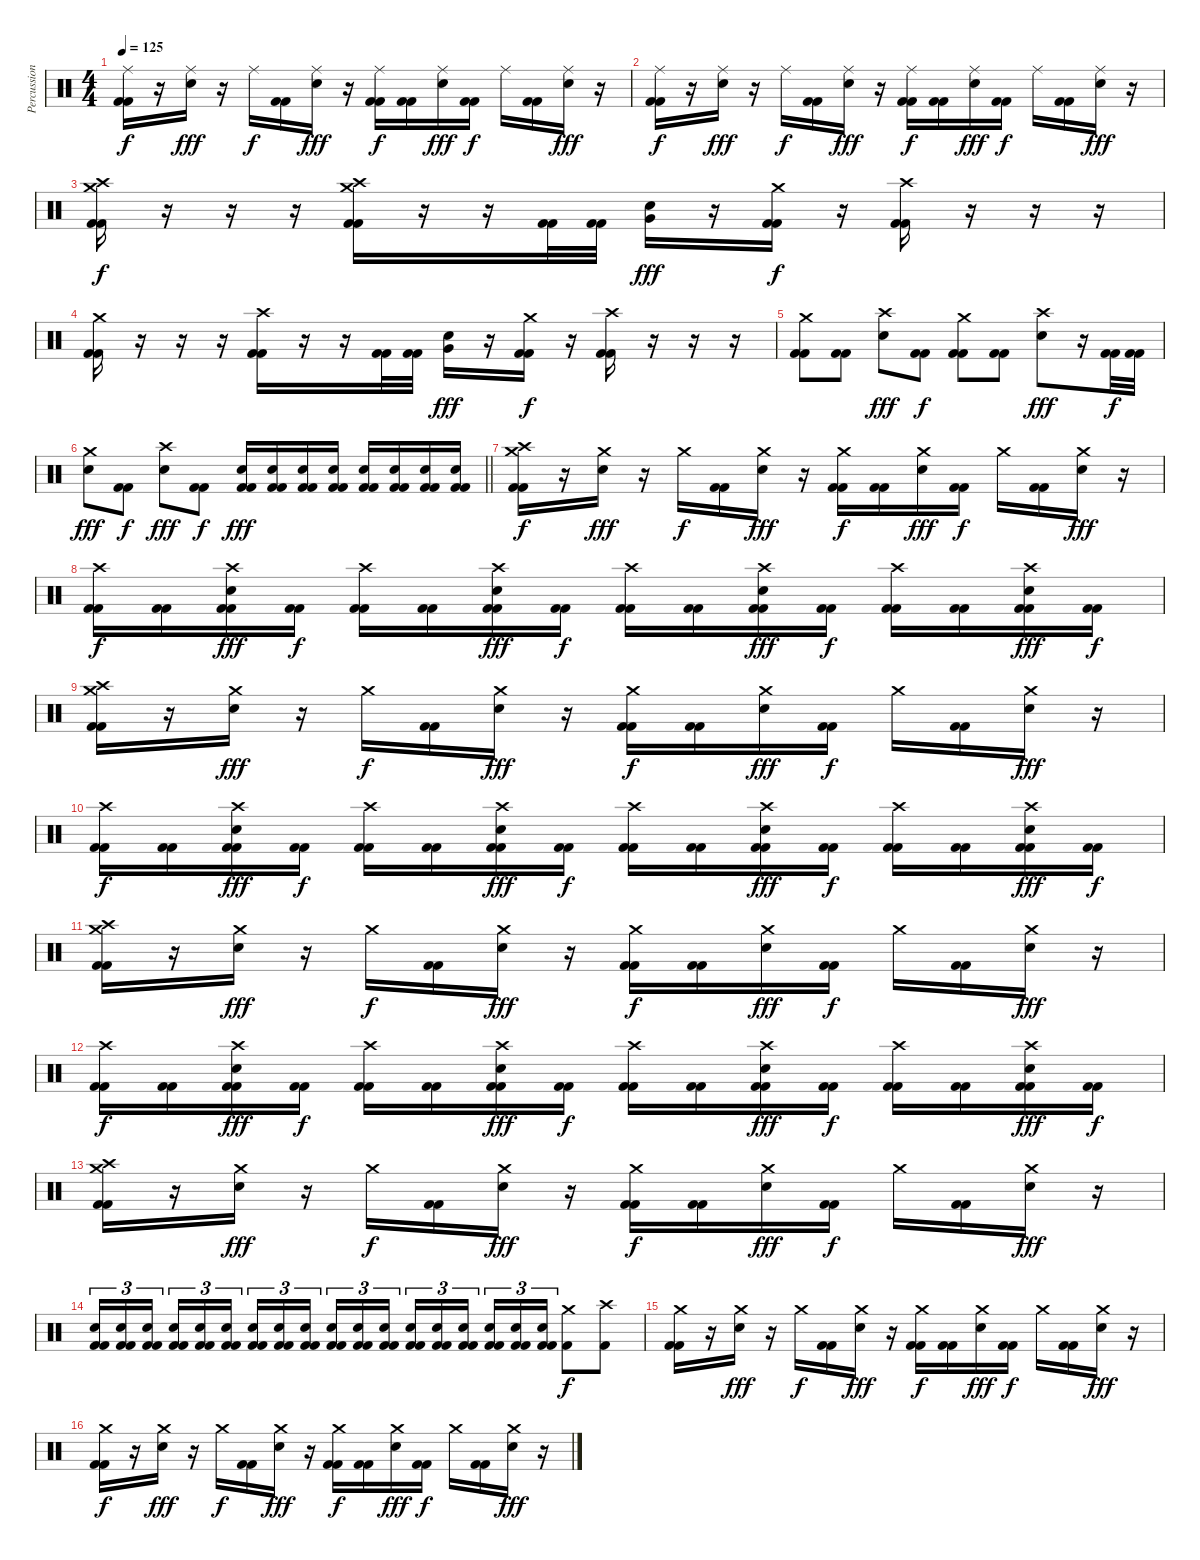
\track ("Percussion" "Percussion") {solo instrument percussion}
\staff {score}
\articulation defaults
\ts (4 4)
\tempo 125
\clef neutral
\ks c
("Ride (middle)" "Kick (hit) 2" "Kick (hit) 2").16{dy f} r.16 ("Ride (middle)" "Electric Snare (hit)").16{dy fff} r.16 "Ride (middle)".16{dy f} ("Kick (hit) 2" "Kick (hit) 2").16 ("Ride (middle)" "Electric Snare (hit)").16{dy fff} r.16 ("Ride (middle)" "Kick (hit) 2" "Kick (hit) 2").16{dy f} ("Kick (hit) 2" "Kick (hit) 2").16 ("Ride (middle)" "Electric Snare (hit)").16{dy fff} ("Kick (hit) 2" "Kick (hit) 2").16{dy f} "Ride (middle)".16 ("Kick (hit) 2" "Kick (hit) 2").16 ("Ride (middle)" "Electric Snare (hit)").16{dy fff} r.16 |
("Ride (middle)" "Kick (hit) 2" "Kick (hit) 2").16{dy f} r.16 ("Ride (middle)" "Electric Snare (hit)").16{dy fff} r.16 "Ride (middle)".16{dy f} ("Kick (hit) 2" "Kick (hit) 2").16 ("Ride (middle)" "Electric Snare (hit)").16{dy fff} r.16 ("Ride (middle)" "Kick (hit) 2" "Kick (hit) 2").16{dy f} ("Kick (hit) 2" "Kick (hit) 2").16 ("Ride (middle)" "Electric Snare (hit)").16{dy fff} ("Kick (hit) 2" "Kick (hit) 2").16{dy f} "Ride (middle)".16 ("Kick (hit) 2" "Kick (hit) 2").16 ("Ride (middle)" "Electric Snare (hit)").16{dy fff} r.16 |
("Crash high (hit)" "Crash medium (hit)" "Kick (hit) 2" "Kick (hit) 2").16{dy f} r.16 r.16 r.16 ("Crash high (hit)" "Crash medium (hit)" "Kick (hit) 2" "Kick (hit) 2").16 r.16 r.16 ("Kick (hit) 2" "Kick (hit) 2").32 ("Kick (hit) 2" "Kick (hit) 2").32 ("Electric Snare (hit)" "Very Low Tom (hit)").16{dy fff} r.16 ("Crash medium (hit)" "Kick (hit) 2" "Kick (hit) 2").16{dy f} r.16 ("Crash high (hit)" "Kick (hit) 2" "Kick (hit) 2").16 r.16 r.16 r.16 |
("Crash medium (hit)" "Kick (hit) 2" "Kick (hit) 2").16 r.16 r.16 r.16 ("Crash high (hit)" "Kick (hit) 2" "Kick (hit) 2").16 r.16 r.16 ("Kick (hit) 2" "Kick (hit) 2").32 ("Kick (hit) 2" "Kick (hit) 2").32 ("Electric Snare (hit)" "Very Low Tom (hit)").16{dy fff} r.16 ("Crash medium (hit)" "Kick (hit) 2" "Kick (hit) 2").16{dy f} r.16 ("Crash high (hit)" "Kick (hit) 2" "Kick (hit) 2").16 r.16 r.16 r.16 |
("Crash medium (hit)" "Kick (hit) 2" "Kick (hit) 2").8 ("Kick (hit) 2" "Kick (hit) 2").8 ("Crash high (hit)" "Electric Snare (hit)").8{dy fff} ("Kick (hit) 2" "Kick (hit) 2").8{dy f} ("Crash medium (hit)" "Kick (hit) 2" "Kick (hit) 2").8 ("Kick (hit) 2" "Kick (hit) 2").8 ("Crash high (hit)" "Electric Snare (hit)").8{dy fff} r.16 ("Kick (hit) 2" "Kick (hit) 2").32{dy f} ("Kick (hit) 2" "Kick (hit) 2").32 |
\barLineRight lightlight
("Crash medium (hit)" "Electric Snare (hit)").8{dy fff} ("Kick (hit) 2" "Kick (hit) 2").8{dy f} ("Crash high (hit)" "Electric Snare (hit)").8{dy fff} ("Kick (hit) 2" "Kick (hit) 2").8{dy f} ("Electric Snare (hit)" "Kick (hit) 2" "Kick (hit) 2").16{dy fff} ("Electric Snare (hit)" "Kick (hit) 2" "Kick (hit) 2").16 ("Electric Snare (hit)" "Kick (hit) 2" "Kick (hit) 2").16 ("Electric Snare (hit)" "Kick (hit) 2" "Kick (hit) 2").16 ("Electric Snare (hit)" "Kick (hit) 2" "Kick (hit) 2").16 ("Electric Snare (hit)" "Kick (hit) 2" "Kick (hit) 2").16 ("Electric Snare (hit)" "Kick (hit) 2" "Kick (hit) 2").16 ("Electric Snare (hit)" "Kick (hit) 2" "Kick (hit) 2").16 |
("Crash high (hit)" "Crash medium (hit)" "Kick (hit) 2" "Kick (hit) 2").16{dy f} r.16 ("Crash medium (hit)" "Electric Snare (hit)").16{dy fff} r.16 "Crash medium (hit)".16{dy f} ("Kick (hit) 2" "Kick (hit) 2").16 ("Crash medium (hit)" "Electric Snare (hit)").16{dy fff} r.16 ("Crash medium (hit)" "Kick (hit) 2" "Kick (hit) 2").16{dy f} ("Kick (hit) 2" "Kick (hit) 2").16 ("Crash medium (hit)" "Electric Snare (hit)").16{dy fff} ("Kick (hit) 2" "Kick (hit) 2").16{dy f} "Crash medium (hit)".16 ("Kick (hit) 2" "Kick (hit) 2").16 ("Crash medium (hit)" "Electric Snare (hit)").16{dy fff} r.16 |
("Crash high (hit)" "Kick (hit) 2" "Kick (hit) 2").16{dy f} ("Kick (hit) 2" "Kick (hit) 2").16 ("Crash high (hit)" "Electric Snare (hit)" "Kick (hit) 2" "Kick (hit) 2").16{dy fff} ("Kick (hit) 2" "Kick (hit) 2").16{dy f} ("Crash high (hit)" "Kick (hit) 2" "Kick (hit) 2").16 ("Kick (hit) 2" "Kick (hit) 2").16 ("Crash high (hit)" "Electric Snare (hit)" "Kick (hit) 2" "Kick (hit) 2").16{dy fff} ("Kick (hit) 2" "Kick (hit) 2").16{dy f} ("Crash high (hit)" "Kick (hit) 2" "Kick (hit) 2").16 ("Kick (hit) 2" "Kick (hit) 2").16 ("Crash high (hit)" "Electric Snare (hit)" "Kick (hit) 2" "Kick (hit) 2").16{dy fff} ("Kick (hit) 2" "Kick (hit) 2").16{dy f} ("Crash high (hit)" "Kick (hit) 2" "Kick (hit) 2").16 ("Kick (hit) 2" "Kick (hit) 2").16 ("Crash high (hit)" "Electric Snare (hit)" "Kick (hit) 2" "Kick (hit) 2").16{dy fff} ("Kick (hit) 2" "Kick (hit) 2").16{dy f} |
("Crash high (hit)" "Crash medium (hit)" "Kick (hit) 2" "Kick (hit) 2").16 r.16 ("Crash medium (hit)" "Electric Snare (hit)").16{dy fff} r.16 "Crash medium (hit)".16{dy f} ("Kick (hit) 2" "Kick (hit) 2").16 ("Crash medium (hit)" "Electric Snare (hit)").16{dy fff} r.16 ("Crash medium (hit)" "Kick (hit) 2" "Kick (hit) 2").16{dy f} ("Kick (hit) 2" "Kick (hit) 2").16 ("Crash medium (hit)" "Electric Snare (hit)").16{dy fff} ("Kick (hit) 2" "Kick (hit) 2").16{dy f} "Crash medium (hit)".16 ("Kick (hit) 2" "Kick (hit) 2").16 ("Crash medium (hit)" "Electric Snare (hit)").16{dy fff} r.16 |
("Crash high (hit)" "Kick (hit) 2" "Kick (hit) 2").16{dy f} ("Kick (hit) 2" "Kick (hit) 2").16 ("Crash high (hit)" "Electric Snare (hit)" "Kick (hit) 2" "Kick (hit) 2").16{dy fff} ("Kick (hit) 2" "Kick (hit) 2").16{dy f} ("Crash high (hit)" "Kick (hit) 2" "Kick (hit) 2").16 ("Kick (hit) 2" "Kick (hit) 2").16 ("Crash high (hit)" "Electric Snare (hit)" "Kick (hit) 2" "Kick (hit) 2").16{dy fff} ("Kick (hit) 2" "Kick (hit) 2").16{dy f} ("Crash high (hit)" "Kick (hit) 2" "Kick (hit) 2").16 ("Kick (hit) 2" "Kick (hit) 2").16 ("Crash high (hit)" "Electric Snare (hit)" "Kick (hit) 2" "Kick (hit) 2").16{dy fff} ("Kick (hit) 2" "Kick (hit) 2").16{dy f} ("Crash high (hit)" "Kick (hit) 2" "Kick (hit) 2").16 ("Kick (hit) 2" "Kick (hit) 2").16 ("Crash high (hit)" "Electric Snare (hit)" "Kick (hit) 2" "Kick (hit) 2").16{dy fff} ("Kick (hit) 2" "Kick (hit) 2").16{dy f} |
("Crash high (hit)" "Crash medium (hit)" "Kick (hit) 2" "Kick (hit) 2").16 r.16 ("Crash medium (hit)" "Electric Snare (hit)").16{dy fff} r.16 "Crash medium (hit)".16{dy f} ("Kick (hit) 2" "Kick (hit) 2").16 ("Crash medium (hit)" "Electric Snare (hit)").16{dy fff} r.16 ("Crash medium (hit)" "Kick (hit) 2" "Kick (hit) 2").16{dy f} ("Kick (hit) 2" "Kick (hit) 2").16 ("Crash medium (hit)" "Electric Snare (hit)").16{dy fff} ("Kick (hit) 2" "Kick (hit) 2").16{dy f} "Crash medium (hit)".16 ("Kick (hit) 2" "Kick (hit) 2").16 ("Crash medium (hit)" "Electric Snare (hit)").16{dy fff} r.16 |
("Crash high (hit)" "Kick (hit) 2" "Kick (hit) 2").16{dy f} ("Kick (hit) 2" "Kick (hit) 2").16 ("Crash high (hit)" "Electric Snare (hit)" "Kick (hit) 2" "Kick (hit) 2").16{dy fff} ("Kick (hit) 2" "Kick (hit) 2").16{dy f} ("Crash high (hit)" "Kick (hit) 2" "Kick (hit) 2").16 ("Kick (hit) 2" "Kick (hit) 2").16 ("Crash high (hit)" "Electric Snare (hit)" "Kick (hit) 2" "Kick (hit) 2").16{dy fff} ("Kick (hit) 2" "Kick (hit) 2").16{dy f} ("Crash high (hit)" "Kick (hit) 2" "Kick (hit) 2").16 ("Kick (hit) 2" "Kick (hit) 2").16 ("Crash high (hit)" "Electric Snare (hit)" "Kick (hit) 2" "Kick (hit) 2").16{dy fff} ("Kick (hit) 2" "Kick (hit) 2").16{dy f} ("Crash high (hit)" "Kick (hit) 2" "Kick (hit) 2").16 ("Kick (hit) 2" "Kick (hit) 2").16 ("Crash high (hit)" "Electric Snare (hit)" "Kick (hit) 2" "Kick (hit) 2").16{dy fff} ("Kick (hit) 2" "Kick (hit) 2").16{dy f} |
("Crash high (hit)" "Crash medium (hit)" "Kick (hit) 2" "Kick (hit) 2").16 r.16 ("Crash medium (hit)" "Electric Snare (hit)").16{dy fff} r.16 "Crash medium (hit)".16{dy f} ("Kick (hit) 2" "Kick (hit) 2").16 ("Crash medium (hit)" "Electric Snare (hit)").16{dy fff} r.16 ("Crash medium (hit)" "Kick (hit) 2" "Kick (hit) 2").16{dy f} ("Kick (hit) 2" "Kick (hit) 2").16 ("Crash medium (hit)" "Electric Snare (hit)").16{dy fff} ("Kick (hit) 2" "Kick (hit) 2").16{dy f} "Crash medium (hit)".16 ("Kick (hit) 2" "Kick (hit) 2").16 ("Crash medium (hit)" "Electric Snare (hit)").16{dy fff} r.16 |
("Electric Snare (hit)" "Kick (hit) 2" "Kick (hit) 2").16{tu (3 2)} ("Electric Snare (hit)" "Kick (hit) 2" "Kick (hit) 2").16{tu (3 2)} ("Electric Snare (hit)" "Kick (hit) 2" "Kick (hit) 2").16{tu (3 2) beam splitsecondary} ("Electric Snare (hit)" "Kick (hit) 2" "Kick (hit) 2").16{tu (3 2)} ("Electric Snare (hit)" "Kick (hit) 2" "Kick (hit) 2").16{tu (3 2)} ("Electric Snare (hit)" "Kick (hit) 2" "Kick (hit) 2").16{tu (3 2)} ("Electric Snare (hit)" "Kick (hit) 2" "Kick (hit) 2").16{tu (3 2)} ("Electric Snare (hit)" "Kick (hit) 2" "Kick (hit) 2").16{tu (3 2)} ("Electric Snare (hit)" "Kick (hit) 2" "Kick (hit) 2").16{tu (3 2) beam splitsecondary} ("Electric Snare (hit)" "Kick (hit) 2" "Kick (hit) 2").16{tu (3 2)} ("Electric Snare (hit)" "Kick (hit) 2" "Kick (hit) 2").16{tu (3 2)} ("Electric Snare (hit)" "Kick (hit) 2" "Kick (hit) 2").16{tu (3 2)} ("Electric Snare (hit)" "Kick (hit) 2" "Kick (hit) 2").16{tu (3 2)} ("Electric Snare (hit)" "Kick (hit) 2" "Kick (hit) 2").16{tu (3 2)} ("Electric Snare (hit)" "Kick (hit) 2" "Kick (hit) 2").16{tu (3 2) beam splitsecondary} ("Electric Snare (hit)" "Kick (hit) 2" "Kick (hit) 2").16{tu (3 2)} ("Electric Snare (hit)" "Kick (hit) 2" "Kick (hit) 2").16{tu (3 2)} ("Electric Snare (hit)" "Kick (hit) 2" "Kick (hit) 2").16{tu (3 2)} ("Crash medium (hit)" "Kick (hit) 2").8{dy f} ("Crash high (hit)" "Kick (hit) 2").8 |
("Crash medium (hit)" "Kick (hit) 2" "Kick (hit) 2").16 r.16 ("Crash medium (hit)" "Electric Snare (hit)").16{dy fff} r.16 "Crash medium (hit)".16{dy f} ("Kick (hit) 2" "Kick (hit) 2").16 ("Crash medium (hit)" "Electric Snare (hit)").16{dy fff} r.16 ("Crash medium (hit)" "Kick (hit) 2" "Kick (hit) 2").16{dy f} ("Kick (hit) 2" "Kick (hit) 2").16 ("Crash medium (hit)" "Electric Snare (hit)").16{dy fff} ("Kick (hit) 2" "Kick (hit) 2").16{dy f} "Crash medium (hit)".16 ("Kick (hit) 2" "Kick (hit) 2").16 ("Crash medium (hit)" "Electric Snare (hit)").16{dy fff} r.16 |
("Crash medium (hit)" "Kick (hit) 2" "Kick (hit) 2").16{dy f} r.16 ("Crash medium (hit)" "Electric Snare (hit)").16{dy fff} r.16 "Crash medium (hit)".16{dy f} ("Kick (hit) 2" "Kick (hit) 2").16 ("Crash medium (hit)" "Electric Snare (hit)").16{dy fff} r.16 ("Crash medium (hit)" "Kick (hit) 2" "Kick (hit) 2").16{dy f} ("Kick (hit) 2" "Kick (hit) 2").16 ("Crash medium (hit)" "Electric Snare (hit)").16{dy fff} ("Kick (hit) 2" "Kick (hit) 2").16{dy f} "Crash medium (hit)".16 ("Kick (hit) 2" "Kick (hit) 2").16 ("Crash medium (hit)" "Electric Snare (hit)").16{dy fff} r.16
